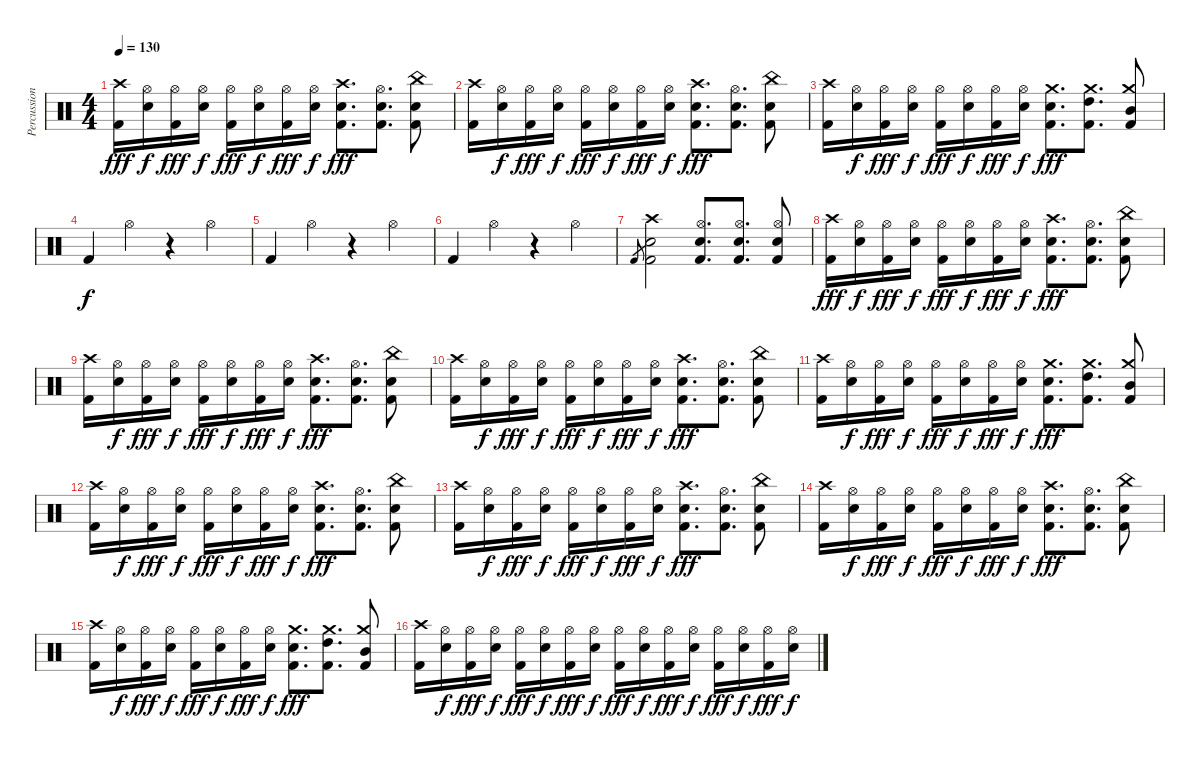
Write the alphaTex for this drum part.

\track ("Percussion" "Percussion") {instrument percussion}
\staff {score}
\articulation defaults
\ts (4 4)
\tempo 130
\clef neutral
\ks c
("Crash high (hit)" "Kick (hit) 2").16{dy fff} ("Hi-Hat (open)" "Electric Snare (hit)").16{dy f} ("Hi-Hat (open)" "Kick (hit) 2").16{dy fff} ("Hi-Hat (open)" "Electric Snare (hit)").16{dy f} ("Hi-Hat (open)" "Kick (hit) 2").16{dy fff} ("Hi-Hat (open)" "Electric Snare (hit)").16{dy f} ("Hi-Hat (open)" "Kick (hit) 2").16{dy fff} ("Hi-Hat (open)" "Electric Snare (hit)").16{dy f} ("Crash high (hit)" "Electric Snare (hit)" "Kick (hit) 2").8{d dy fff} ("Hi-Hat (open)" "Electric Snare (hit)" "Kick (hit) 2").8{d} ("China (hit)" "Electric Snare (hit)" "Kick (hit) 2").8 |
("Crash high (hit)" "Kick (hit) 2").16 ("Hi-Hat (open)" "Electric Snare (hit)").16{dy f} ("Hi-Hat (open)" "Kick (hit) 2").16{dy fff} ("Hi-Hat (open)" "Electric Snare (hit)").16{dy f} ("Hi-Hat (open)" "Kick (hit) 2").16{dy fff} ("Hi-Hat (open)" "Electric Snare (hit)").16{dy f} ("Hi-Hat (open)" "Kick (hit) 2").16{dy fff} ("Hi-Hat (open)" "Electric Snare (hit)").16{dy f} ("Crash high (hit)" "Electric Snare (hit)" "Kick (hit) 2").8{d dy fff} ("Hi-Hat (open)" "Electric Snare (hit)" "Kick (hit) 2").8{d} ("China (hit)" "Electric Snare (hit)" "Kick (hit) 2").8 |
("Crash high (hit)" "Kick (hit) 2").16 ("Hi-Hat (open)" "Electric Snare (hit)").16{dy f} ("Hi-Hat (open)" "Kick (hit) 2").16{dy fff} ("Hi-Hat (open)" "Electric Snare (hit)").16{dy f} ("Hi-Hat (open)" "Kick (hit) 2").16{dy fff} ("Hi-Hat (open)" "Electric Snare (hit)").16{dy f} ("Hi-Hat (open)" "Kick (hit) 2").16{dy fff} ("Hi-Hat (open)" "Electric Snare (hit)").16{dy f} ("Crash medium (hit)" "Electric Snare (hit)" "Kick (hit) 2").8{d dy fff} ("Crash medium (hit)" "High Tom (hit)" "Kick (hit) 2").8{d} ("Crash medium (hit)" "Mid Tom (hit)" "Kick (hit) 2").8 |
"Kick (hit) 2".4{dy f} "Hi-Hat (open)".4 r.4 "Hi-Hat (open)".4 |
"Kick (hit) 2".4 "Hi-Hat (open)".4 r.4 "Hi-Hat (open)".4 |
"Kick (hit) 2".4 "Hi-Hat (open)".4 r.4 "Hi-Hat (open)".4 |
"Kick (hit) 2".8{gr} ("Crash high (hit)" "Electric Snare (hit)" "Kick (hit) 2").2 ("Hi-Hat (open)" "Electric Snare (hit)" "Kick (hit) 2").8{d} ("Hi-Hat (open)" "Electric Snare (hit)" "Kick (hit) 2").8{d} ("Hi-Hat (open)" "Electric Snare (hit)" "Kick (hit) 2").8 |
("Crash high (hit)" "Kick (hit) 2").16{dy fff} ("Hi-Hat (open)" "Electric Snare (hit)").16{dy f} ("Hi-Hat (open)" "Kick (hit) 2").16{dy fff} ("Hi-Hat (open)" "Electric Snare (hit)").16{dy f} ("Hi-Hat (open)" "Kick (hit) 2").16{dy fff} ("Hi-Hat (open)" "Electric Snare (hit)").16{dy f} ("Hi-Hat (open)" "Kick (hit) 2").16{dy fff} ("Hi-Hat (open)" "Electric Snare (hit)").16{dy f} ("Crash high (hit)" "Electric Snare (hit)" "Kick (hit) 2").8{d dy fff} ("Hi-Hat (open)" "Electric Snare (hit)" "Kick (hit) 2").8{d} ("China (hit)" "Electric Snare (hit)" "Kick (hit) 2").8 |
("Crash high (hit)" "Kick (hit) 2").16 ("Hi-Hat (open)" "Electric Snare (hit)").16{dy f} ("Hi-Hat (open)" "Kick (hit) 2").16{dy fff} ("Hi-Hat (open)" "Electric Snare (hit)").16{dy f} ("Hi-Hat (open)" "Kick (hit) 2").16{dy fff} ("Hi-Hat (open)" "Electric Snare (hit)").16{dy f} ("Hi-Hat (open)" "Kick (hit) 2").16{dy fff} ("Hi-Hat (open)" "Electric Snare (hit)").16{dy f} ("Crash high (hit)" "Electric Snare (hit)" "Kick (hit) 2").8{d dy fff} ("Hi-Hat (open)" "Electric Snare (hit)" "Kick (hit) 2").8{d} ("China (hit)" "Electric Snare (hit)" "Kick (hit) 2").8 |
("Crash high (hit)" "Kick (hit) 2").16 ("Hi-Hat (open)" "Electric Snare (hit)").16{dy f} ("Hi-Hat (open)" "Kick (hit) 2").16{dy fff} ("Hi-Hat (open)" "Electric Snare (hit)").16{dy f} ("Hi-Hat (open)" "Kick (hit) 2").16{dy fff} ("Hi-Hat (open)" "Electric Snare (hit)").16{dy f} ("Hi-Hat (open)" "Kick (hit) 2").16{dy fff} ("Hi-Hat (open)" "Electric Snare (hit)").16{dy f} ("Crash high (hit)" "Electric Snare (hit)" "Kick (hit) 2").8{d dy fff} ("Hi-Hat (open)" "Electric Snare (hit)" "Kick (hit) 2").8{d} ("China (hit)" "Electric Snare (hit)" "Kick (hit) 2").8 |
("Crash high (hit)" "Kick (hit) 2").16 ("Hi-Hat (open)" "Electric Snare (hit)").16{dy f} ("Hi-Hat (open)" "Kick (hit) 2").16{dy fff} ("Hi-Hat (open)" "Electric Snare (hit)").16{dy f} ("Hi-Hat (open)" "Kick (hit) 2").16{dy fff} ("Hi-Hat (open)" "Electric Snare (hit)").16{dy f} ("Hi-Hat (open)" "Kick (hit) 2").16{dy fff} ("Hi-Hat (open)" "Electric Snare (hit)").16{dy f} ("Crash medium (hit)" "Electric Snare (hit)" "Kick (hit) 2").8{d dy fff} ("Crash medium (hit)" "High Tom (hit)" "Kick (hit) 2").8{d} ("Crash medium (hit)" "Mid Tom (hit)" "Kick (hit) 2").8 |
("Crash high (hit)" "Kick (hit) 2").16 ("Hi-Hat (open)" "Electric Snare (hit)").16{dy f} ("Hi-Hat (open)" "Kick (hit) 2").16{dy fff} ("Hi-Hat (open)" "Electric Snare (hit)").16{dy f} ("Hi-Hat (open)" "Kick (hit) 2").16{dy fff} ("Hi-Hat (open)" "Electric Snare (hit)").16{dy f} ("Hi-Hat (open)" "Kick (hit) 2").16{dy fff} ("Hi-Hat (open)" "Electric Snare (hit)").16{dy f} ("Crash high (hit)" "Electric Snare (hit)" "Kick (hit) 2").8{d dy fff} ("Hi-Hat (open)" "Electric Snare (hit)" "Kick (hit) 2").8{d} ("China (hit)" "Electric Snare (hit)" "Kick (hit) 2").8 |
("Crash high (hit)" "Kick (hit) 2").16 ("Hi-Hat (open)" "Electric Snare (hit)").16{dy f} ("Hi-Hat (open)" "Kick (hit) 2").16{dy fff} ("Hi-Hat (open)" "Electric Snare (hit)").16{dy f} ("Hi-Hat (open)" "Kick (hit) 2").16{dy fff} ("Hi-Hat (open)" "Electric Snare (hit)").16{dy f} ("Hi-Hat (open)" "Kick (hit) 2").16{dy fff} ("Hi-Hat (open)" "Electric Snare (hit)").16{dy f} ("Crash high (hit)" "Electric Snare (hit)" "Kick (hit) 2").8{d dy fff} ("Hi-Hat (open)" "Electric Snare (hit)" "Kick (hit) 2").8{d} ("China (hit)" "Electric Snare (hit)" "Kick (hit) 2").8 |
("Crash high (hit)" "Kick (hit) 2").16 ("Hi-Hat (open)" "Electric Snare (hit)").16{dy f} ("Hi-Hat (open)" "Kick (hit) 2").16{dy fff} ("Hi-Hat (open)" "Electric Snare (hit)").16{dy f} ("Hi-Hat (open)" "Kick (hit) 2").16{dy fff} ("Hi-Hat (open)" "Electric Snare (hit)").16{dy f} ("Hi-Hat (open)" "Kick (hit) 2").16{dy fff} ("Hi-Hat (open)" "Electric Snare (hit)").16{dy f} ("Crash high (hit)" "Electric Snare (hit)" "Kick (hit) 2").8{d dy fff} ("Hi-Hat (open)" "Electric Snare (hit)" "Kick (hit) 2").8{d} ("China (hit)" "Electric Snare (hit)" "Kick (hit) 2").8 |
("Crash high (hit)" "Kick (hit) 2").16 ("Hi-Hat (open)" "Electric Snare (hit)").16{dy f} ("Hi-Hat (open)" "Kick (hit) 2").16{dy fff} ("Hi-Hat (open)" "Electric Snare (hit)").16{dy f} ("Hi-Hat (open)" "Kick (hit) 2").16{dy fff} ("Hi-Hat (open)" "Electric Snare (hit)").16{dy f} ("Hi-Hat (open)" "Kick (hit) 2").16{dy fff} ("Hi-Hat (open)" "Electric Snare (hit)").16{dy f} ("Crash medium (hit)" "Electric Snare (hit)" "Kick (hit) 2").8{d dy fff} ("Crash medium (hit)" "High Tom (hit)" "Kick (hit) 2").8{d} ("Crash medium (hit)" "Mid Tom (hit)" "Kick (hit) 2").8 |
("Crash high (hit)" "Kick (hit) 2").16 ("Hi-Hat (open)" "Electric Snare (hit)").16{dy f} ("Hi-Hat (open)" "Kick (hit) 2").16{dy fff} ("Hi-Hat (open)" "Electric Snare (hit)").16{dy f} ("Hi-Hat (open)" "Kick (hit) 2").16{dy fff} ("Hi-Hat (open)" "Electric Snare (hit)").16{dy f} ("Hi-Hat (open)" "Kick (hit) 2").16{dy fff} ("Hi-Hat (open)" "Electric Snare (hit)").16{dy f} ("Hi-Hat (open)" "Kick (hit) 2").16{dy fff} ("Hi-Hat (open)" "Electric Snare (hit)").16{dy f} ("Hi-Hat (open)" "Kick (hit) 2").16{dy fff} ("Hi-Hat (open)" "Electric Snare (hit)").16{dy f} ("Hi-Hat (open)" "Kick (hit) 2").16{dy fff} ("Hi-Hat (open)" "Electric Snare (hit)").16{dy f} ("Hi-Hat (open)" "Kick (hit) 2").16{dy fff} ("Hi-Hat (open)" "Electric Snare (hit)").16{dy f}
